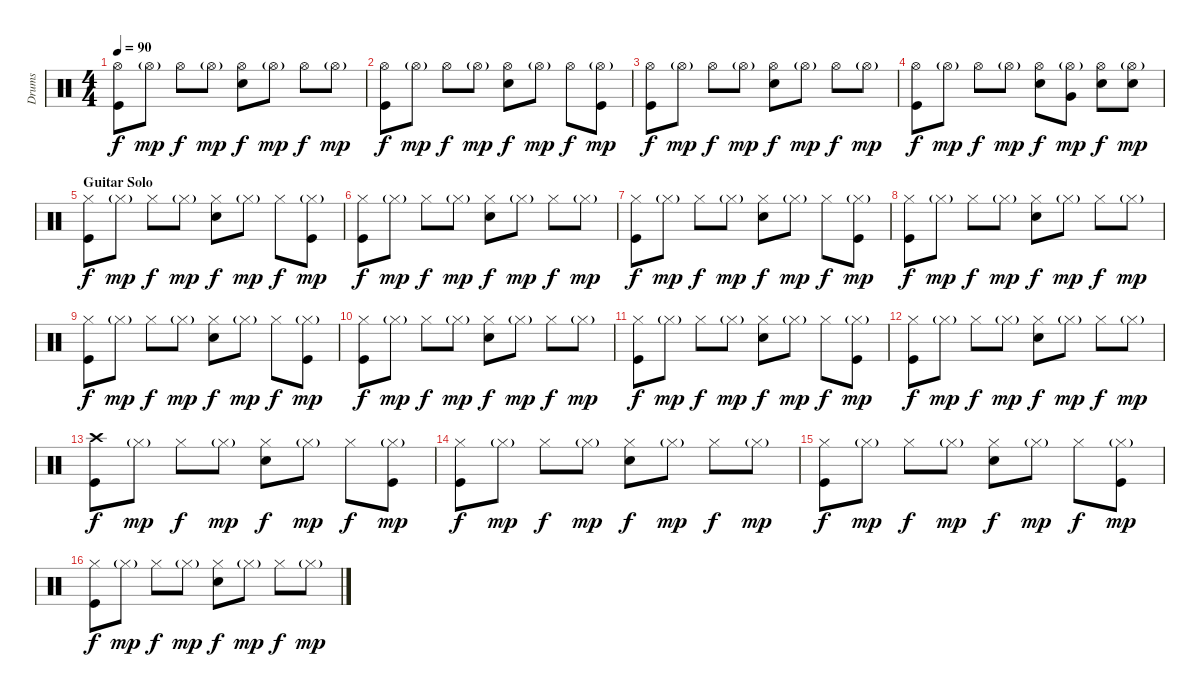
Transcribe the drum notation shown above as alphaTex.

\track ("Drums" "Drums") {instrument percussion}
\staff {score}
\articulation defaults
\ts (4 4)
\tempo 90
\clef neutral
\ks c
("Hi-Hat (open)" "Kick (hit)").8{dy f} "Hi-Hat (open)"{g}.8{dy mp} "Hi-Hat (open)".8{dy f} "Hi-Hat (open)"{g}.8{dy mp} ("Hi-Hat (open)" "Electric Snare (hit)").8{dy f} "Hi-Hat (open)"{g}.8{dy mp} "Hi-Hat (open)".8{dy f} "Hi-Hat (open)"{g}.8{dy mp} |
("Hi-Hat (open)" "Kick (hit)").8{dy f} "Hi-Hat (open)"{g}.8{dy mp} "Hi-Hat (open)".8{dy f} "Hi-Hat (open)"{g}.8{dy mp} ("Hi-Hat (open)" "Electric Snare (hit)").8{dy f} "Hi-Hat (open)"{g}.8{dy mp} "Hi-Hat (open)".8{dy f} ("Hi-Hat (open)"{g} "Kick (hit)").8{dy mp} |
("Hi-Hat (open)" "Kick (hit)").8{dy f} "Hi-Hat (open)"{g}.8{dy mp} "Hi-Hat (open)".8{dy f} "Hi-Hat (open)"{g}.8{dy mp} ("Hi-Hat (open)" "Electric Snare (hit)").8{dy f} "Hi-Hat (open)"{g}.8{dy mp} "Hi-Hat (open)".8{dy f} "Hi-Hat (open)"{g}.8{dy mp} |
("Hi-Hat (open)" "Kick (hit)").8{dy f} "Hi-Hat (open)"{g}.8{dy mp} "Hi-Hat (open)".8{dy f} "Hi-Hat (open)"{g}.8{dy mp} ("Hi-Hat (open)" "Electric Snare (hit)").8{dy f} ("Hi-Hat (open)"{g} "Very Low Tom (hit)").8{dy mp} ("Hi-Hat (open)" "Electric Snare (hit)").8{dy f} ("Hi-Hat (open)"{g} "Electric Snare (hit)").8{dy mp} |
\section ("" "Guitar Solo")
("Hi-Hat (closed)" "Kick (hit)").8{dy f} "Hi-Hat (closed)"{g}.8{dy mp} "Hi-Hat (closed)".8{dy f} "Hi-Hat (closed)"{g}.8{dy mp} ("Hi-Hat (closed)" "Electric Snare (hit)").8{dy f} "Hi-Hat (closed)"{g}.8{dy mp} "Hi-Hat (closed)".8{dy f} ("Hi-Hat (closed)"{g} "Kick (hit)").8{dy mp} |
("Hi-Hat (closed)" "Kick (hit)").8{dy f} "Hi-Hat (closed)"{g}.8{dy mp} "Hi-Hat (closed)".8{dy f} "Hi-Hat (closed)"{g}.8{dy mp} ("Hi-Hat (closed)" "Electric Snare (hit)").8{dy f} "Hi-Hat (closed)"{g}.8{dy mp} "Hi-Hat (closed)".8{dy f} "Hi-Hat (closed)"{g}.8{dy mp} |
("Hi-Hat (closed)" "Kick (hit)").8{dy f} "Hi-Hat (closed)"{g}.8{dy mp} "Hi-Hat (closed)".8{dy f} "Hi-Hat (closed)"{g}.8{dy mp} ("Hi-Hat (closed)" "Electric Snare (hit)").8{dy f} "Hi-Hat (closed)"{g}.8{dy mp} "Hi-Hat (closed)".8{dy f} ("Hi-Hat (closed)"{g} "Kick (hit)").8{dy mp} |
("Hi-Hat (closed)" "Kick (hit)").8{dy f} "Hi-Hat (closed)"{g}.8{dy mp} "Hi-Hat (closed)".8{dy f} "Hi-Hat (closed)"{g}.8{dy mp} ("Hi-Hat (closed)" "Electric Snare (hit)").8{dy f} "Hi-Hat (closed)"{g}.8{dy mp} "Hi-Hat (closed)".8{dy f} "Hi-Hat (closed)"{g}.8{dy mp} |
("Hi-Hat (closed)" "Kick (hit)").8{dy f} "Hi-Hat (closed)"{g}.8{dy mp} "Hi-Hat (closed)".8{dy f} "Hi-Hat (closed)"{g}.8{dy mp} ("Hi-Hat (closed)" "Electric Snare (hit)").8{dy f} "Hi-Hat (closed)"{g}.8{dy mp} "Hi-Hat (closed)".8{dy f} ("Hi-Hat (closed)"{g} "Kick (hit)").8{dy mp} |
("Hi-Hat (closed)" "Kick (hit)").8{dy f} "Hi-Hat (closed)"{g}.8{dy mp} "Hi-Hat (closed)".8{dy f} "Hi-Hat (closed)"{g}.8{dy mp} ("Hi-Hat (closed)" "Electric Snare (hit)").8{dy f} "Hi-Hat (closed)"{g}.8{dy mp} "Hi-Hat (closed)".8{dy f} "Hi-Hat (closed)"{g}.8{dy mp} |
("Hi-Hat (closed)" "Kick (hit)").8{dy f} "Hi-Hat (closed)"{g}.8{dy mp} "Hi-Hat (closed)".8{dy f} "Hi-Hat (closed)"{g}.8{dy mp} ("Hi-Hat (closed)" "Electric Snare (hit)").8{dy f} "Hi-Hat (closed)"{g}.8{dy mp} "Hi-Hat (closed)".8{dy f} ("Hi-Hat (closed)"{g} "Kick (hit)").8{dy mp} |
("Hi-Hat (closed)" "Kick (hit)").8{dy f} "Hi-Hat (closed)"{g}.8{dy mp} "Hi-Hat (closed)".8{dy f} "Hi-Hat (closed)"{g}.8{dy mp} ("Hi-Hat (closed)" "Electric Snare (hit)").8{dy f} "Hi-Hat (closed)"{g}.8{dy mp} "Hi-Hat (closed)".8{dy f} "Hi-Hat (closed)"{g}.8{dy mp} |
("Crash high (hit)" "Kick (hit)").8{dy f} "Hi-Hat (closed)"{g}.8{dy mp} "Hi-Hat (closed)".8{dy f} "Hi-Hat (closed)"{g}.8{dy mp} ("Hi-Hat (closed)" "Electric Snare (hit)").8{dy f} "Hi-Hat (closed)"{g}.8{dy mp} "Hi-Hat (closed)".8{dy f} ("Hi-Hat (closed)"{g} "Kick (hit)").8{dy mp} |
("Hi-Hat (closed)" "Kick (hit)").8{dy f} "Hi-Hat (closed)"{g}.8{dy mp} "Hi-Hat (closed)".8{dy f} "Hi-Hat (closed)"{g}.8{dy mp} ("Hi-Hat (closed)" "Electric Snare (hit)").8{dy f} "Hi-Hat (closed)"{g}.8{dy mp} "Hi-Hat (closed)".8{dy f} "Hi-Hat (closed)"{g}.8{dy mp} |
("Hi-Hat (closed)" "Kick (hit)").8{dy f} "Hi-Hat (closed)"{g}.8{dy mp} "Hi-Hat (closed)".8{dy f} "Hi-Hat (closed)"{g}.8{dy mp} ("Hi-Hat (closed)" "Electric Snare (hit)").8{dy f} "Hi-Hat (closed)"{g}.8{dy mp} "Hi-Hat (closed)".8{dy f} ("Hi-Hat (closed)"{g} "Kick (hit)").8{dy mp} |
("Hi-Hat (closed)" "Kick (hit)").8{dy f} "Hi-Hat (closed)"{g}.8{dy mp} "Hi-Hat (closed)".8{dy f} "Hi-Hat (closed)"{g}.8{dy mp} ("Hi-Hat (closed)" "Electric Snare (hit)").8{dy f} "Hi-Hat (closed)"{g}.8{dy mp} "Hi-Hat (closed)".8{dy f} "Hi-Hat (closed)"{g}.8{dy mp}
